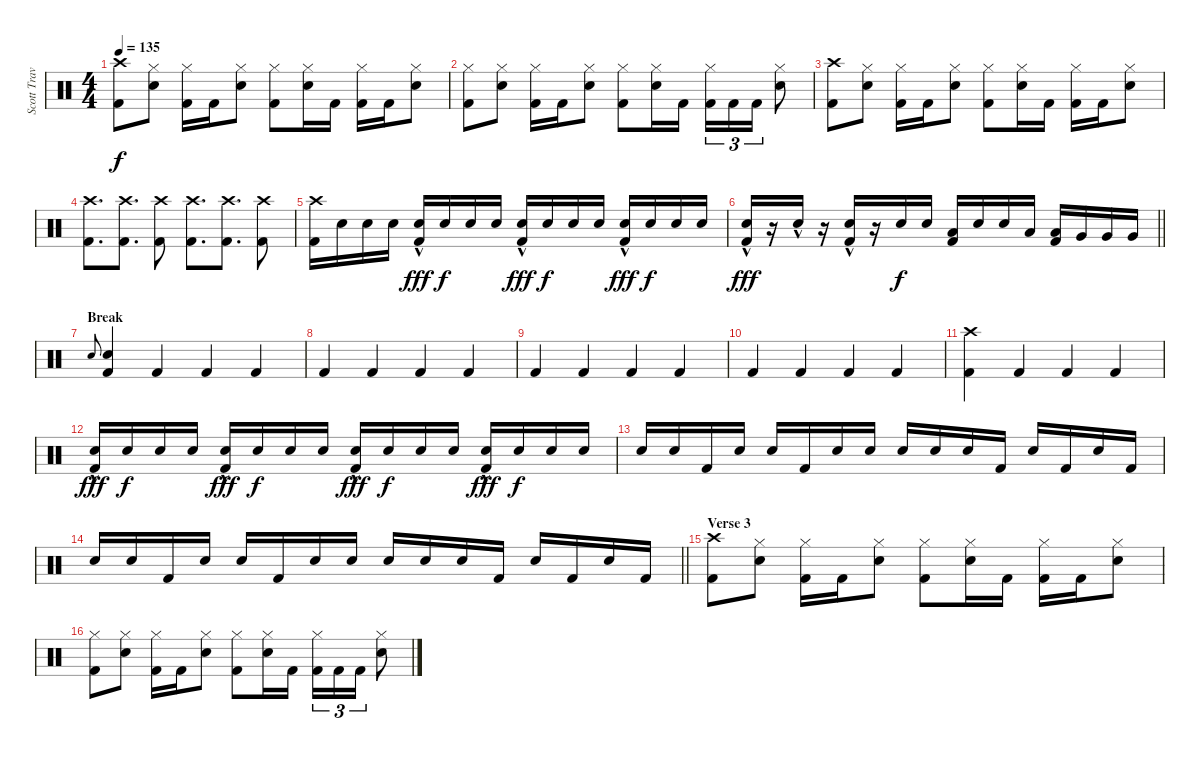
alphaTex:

\track ("Scott Travis" "Scott Trav") {instrument percussion}
\staff {score}
\articulation defaults
\ts (4 4)
\tempo 135
\clef neutral
\ks c
("Crash high (hit)" "Kick (hit) 2").8{dy f} ("Hi-Hat (closed)" "Snare (hit) 2").8 ("Hi-Hat (closed)" "Kick (hit) 2").16 "Kick (hit) 2".16 ("Hi-Hat (closed)" "Snare (hit) 2").8 ("Hi-Hat (closed)" "Kick (hit) 2").8 ("Hi-Hat (closed)" "Snare (hit) 2").16 "Kick (hit) 2".16 ("Hi-Hat (closed)" "Kick (hit) 2").16 "Kick (hit) 2".16 ("Hi-Hat (closed)" "Snare (hit) 2").8 |
("Hi-Hat (closed)" "Kick (hit) 2").8 ("Hi-Hat (closed)" "Snare (hit) 2").8 ("Hi-Hat (closed)" "Kick (hit) 2").16 "Kick (hit) 2".16 ("Hi-Hat (closed)" "Snare (hit) 2").8 ("Hi-Hat (closed)" "Kick (hit) 2").8 ("Hi-Hat (closed)" "Snare (hit) 2").16 "Kick (hit) 2".16 ("Hi-Hat (closed)" "Kick (hit) 2").16{tu (3 2)} "Kick (hit) 2".16{tu (3 2)} "Kick (hit) 2".16{tu (3 2)} ("Hi-Hat (closed)" "Snare (hit) 2").8 |
("Crash high (hit)" "Kick (hit) 2").8 ("Hi-Hat (closed)" "Snare (hit) 2").8 ("Hi-Hat (closed)" "Kick (hit) 2").16 "Kick (hit) 2".16 ("Hi-Hat (closed)" "Snare (hit) 2").8 ("Hi-Hat (closed)" "Kick (hit) 2").8 ("Hi-Hat (closed)" "Snare (hit) 2").16 "Kick (hit) 2".16 ("Hi-Hat (closed)" "Kick (hit) 2").16 "Kick (hit) 2".16 ("Hi-Hat (closed)" "Snare (hit) 2").8 |
("Crash high (hit)" "Kick (hit) 2").8{d} ("Crash high (hit)" "Kick (hit) 2").8{d} ("Crash high (hit)" "Kick (hit) 2").8 ("Crash high (hit)" "Kick (hit) 2").8{d} ("Crash high (hit)" "Kick (hit) 2").8{d} ("Crash high (hit)" "Kick (hit) 2").8 |
("Crash high (hit)" "Kick (hit) 2").16 "Snare (hit) 2".16 "Snare (hit) 2".16 "Snare (hit) 2".16 ("Snare (hit) 2"{hac} "Kick (hit) 2").16{dy fff} "Snare (hit) 2".16{dy f} "Snare (hit) 2".16 "Snare (hit) 2".16 ("Snare (hit) 2"{hac} "Kick (hit) 2").16{dy fff} "Snare (hit) 2".16{dy f} "Snare (hit) 2".16 "Snare (hit) 2".16 ("Snare (hit) 2"{hac} "Kick (hit) 2").16{dy fff} "Snare (hit) 2".16{dy f} "Snare (hit) 2".16 "Snare (hit) 2".16 |
\barLineRight lightlight
("Snare (hit) 2"{hac} "Kick (hit) 2").16{dy fff} r.16 "Snare (hit) 2"{hac}.16 r.16 ("Snare (hit) 2"{hac} "Kick (hit) 2").16 r.16 "Snare (hit) 2".16{dy f} "Snare (hit) 2".16 ("Low Tom (hit)" "Kick (hit) 2").16 "Snare (hit) 2".16 "Snare (hit) 2".16 "Low Tom (hit)".16 ("Low Tom (hit)" "Kick (hit) 2").16 "Very Low Tom (hit)".16 "Very Low Tom (hit)".16 "Very Low Tom (hit)".16 |
\section ("" "Break")
"Snare (hit) 2".8{gr onbeat} ("Snare (hit) 2" "Kick (hit) 2").4 "Kick (hit) 2".4 "Kick (hit) 2".4 "Kick (hit) 2".4 |
"Kick (hit) 2".4 "Kick (hit) 2".4 "Kick (hit) 2".4 "Kick (hit) 2".4 |
"Kick (hit) 2".4 "Kick (hit) 2".4 "Kick (hit) 2".4 "Kick (hit) 2".4 |
"Kick (hit) 2".4 "Kick (hit) 2".4 "Kick (hit) 2".4 "Kick (hit) 2".4 |
("Crash high (hit)" "Kick (hit) 2").4 "Kick (hit) 2".4 "Kick (hit) 2".4 "Kick (hit) 2".4 |
("Snare (hit) 2"{hac} "Kick (hit) 2").16{dy fff} "Snare (hit) 2".16{dy f} "Snare (hit) 2".16 "Snare (hit) 2".16 ("Snare (hit) 2"{hac} "Kick (hit) 2").16{dy fff} "Snare (hit) 2".16{dy f} "Snare (hit) 2".16 "Snare (hit) 2".16 ("Snare (hit) 2"{hac} "Kick (hit) 2").16{dy fff} "Snare (hit) 2".16{dy f} "Snare (hit) 2".16 "Snare (hit) 2".16 ("Snare (hit) 2"{hac} "Kick (hit) 2").16{dy fff} "Snare (hit) 2".16{dy f} "Snare (hit) 2".16 "Snare (hit) 2".16 |
"Snare (hit) 2".16 "Snare (hit) 2".16 "Kick (hit) 2".16 "Snare (hit) 2".16 "Snare (hit) 2".16 "Kick (hit) 2".16 "Snare (hit) 2".16 "Snare (hit) 2".16 "Snare (hit) 2".16 "Snare (hit) 2".16 "Snare (hit) 2".16 "Kick (hit) 2".16 "Snare (hit) 2".16 "Kick (hit) 2".16 "Snare (hit) 2".16 "Kick (hit) 2".16 |
\barLineRight lightlight "Snare (hit) 2".16 "Snare (hit) 2".16 "Kick (hit) 2".16 "Snare (hit) 2".16 "Snare (hit) 2".16 "Kick (hit) 2".16 "Snare (hit) 2".16 "Snare (hit) 2".16 "Snare (hit) 2".16 "Snare (hit) 2".16 "Snare (hit) 2".16 "Kick (hit) 2".16 "Snare (hit) 2".16 "Kick (hit) 2".16 "Snare (hit) 2".16 "Kick (hit) 2".16
|
\section ("" "Verse 3")
("Crash high (hit)" "Kick (hit) 2").8 ("Hi-Hat (closed)" "Snare (hit) 2").8 ("Hi-Hat (closed)" "Kick (hit) 2").16 "Kick (hit) 2".16 ("Hi-Hat (closed)" "Snare (hit) 2").8 ("Hi-Hat (closed)" "Kick (hit) 2").8 ("Hi-Hat (closed)" "Snare (hit) 2").16 "Kick (hit) 2".16 ("Hi-Hat (closed)" "Kick (hit) 2").16 "Kick (hit) 2".16 ("Hi-Hat (closed)" "Snare (hit) 2").8 |
("Hi-Hat (closed)" "Kick (hit) 2").8 ("Hi-Hat (closed)" "Snare (hit) 2").8 ("Hi-Hat (closed)" "Kick (hit) 2").16 "Kick (hit) 2".16 ("Hi-Hat (closed)" "Snare (hit) 2").8 ("Hi-Hat (closed)" "Kick (hit) 2").8 ("Hi-Hat (closed)" "Snare (hit) 2").16 "Kick (hit) 2".16 ("Hi-Hat (closed)" "Kick (hit) 2").16{tu (3 2)} "Kick (hit) 2".16{tu (3 2)} "Kick (hit) 2".16{tu (3 2)} ("Hi-Hat (closed)" "Snare (hit) 2").8
